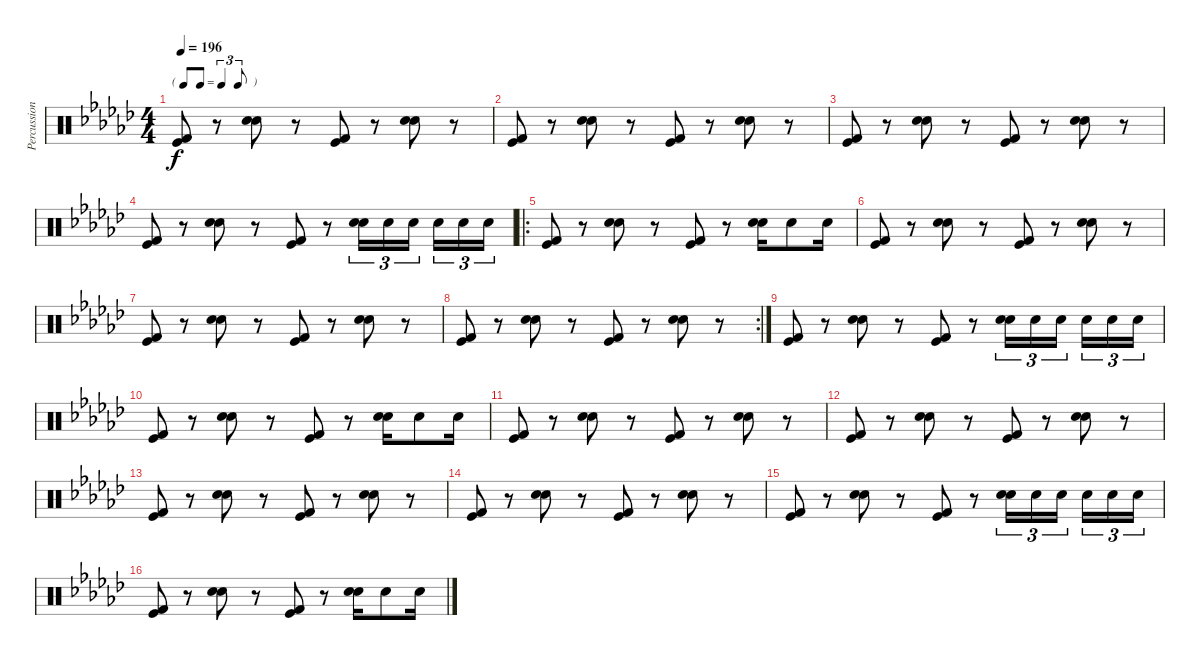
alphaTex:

\track ("Percussions" "Percussion") {instrument percussion}
\staff {score}
\articulation defaults
\ts (4 4)
\tf triplet8th
\tempo 196
\clef neutral
\ks gb
("Kick (hit) 2" "Kick (hit)").8{dy f} r.8 ("Snare (hit) 2" "Electric Snare (hit)").8 r.8 ("Kick (hit) 2" "Kick (hit)").8 r.8 ("Snare (hit) 2" "Electric Snare (hit)").8 r.8 |
("Kick (hit) 2" "Kick (hit)").8 r.8 ("Snare (hit) 2" "Electric Snare (hit)").8 r.8 ("Kick (hit) 2" "Kick (hit)").8 r.8 ("Snare (hit) 2" "Electric Snare (hit)").8 r.8 |
("Kick (hit) 2" "Kick (hit)").8 r.8 ("Snare (hit) 2" "Electric Snare (hit)").8 r.8 ("Kick (hit) 2" "Kick (hit)").8 r.8 ("Snare (hit) 2" "Electric Snare (hit)").8 r.8 |
("Kick (hit) 2" "Kick (hit)").8 r.8 ("Snare (hit) 2" "Electric Snare (hit)").8 r.8 ("Kick (hit) 2" "Kick (hit)").8 r.8 ("Hand Clap (hit)" "Electric Snare (hit)").16{tu (3 2)} "Hand Clap (hit)".16{tu (3 2)} "Hand Clap (hit)".16{tu (3 2) beam splitsecondary} "Hand Clap (hit)".16{tu (3 2)} "Hand Clap (hit)".16{tu (3 2)} "Hand Clap (hit)".16{tu (3 2)} |
\ro
("Kick (hit) 2" "Kick (hit)").8 r.8 ("Snare (hit) 2" "Electric Snare (hit)").8 r.8 ("Kick (hit) 2" "Kick (hit)").8 r.8 ("Snare (hit) 2" "Electric Snare (hit)").16 "Hand Clap (hit)".8 "Hand Clap (hit)".16 |
("Kick (hit) 2" "Kick (hit)").8 r.8 ("Snare (hit) 2" "Electric Snare (hit)").8 r.8 ("Kick (hit) 2" "Kick (hit)").8 r.8 ("Snare (hit) 2" "Electric Snare (hit)").8 r.8 |
("Kick (hit) 2" "Kick (hit)").8 r.8 ("Snare (hit) 2" "Electric Snare (hit)").8 r.8 ("Kick (hit) 2" "Kick (hit)").8 r.8 ("Snare (hit) 2" "Electric Snare (hit)").8 r.8 |
\rc 2
("Kick (hit) 2" "Kick (hit)").8 r.8 ("Snare (hit) 2" "Electric Snare (hit)").8 r.8 ("Kick (hit) 2" "Kick (hit)").8 r.8 ("Snare (hit) 2" "Electric Snare (hit)").8 r.8 |
("Kick (hit) 2" "Kick (hit)").8 r.8 ("Snare (hit) 2" "Electric Snare (hit)").8 r.8 ("Kick (hit) 2" "Kick (hit)").8 r.8 ("Hand Clap (hit)" "Electric Snare (hit)").16{tu (3 2)} "Hand Clap (hit)".16{tu (3 2)} "Hand Clap (hit)".16{tu (3 2) beam splitsecondary} "Hand Clap (hit)".16{tu (3 2)} "Hand Clap (hit)".16{tu (3 2)} "Hand Clap (hit)".16{tu (3 2)} |
("Kick (hit) 2" "Kick (hit)").8 r.8 ("Snare (hit) 2" "Electric Snare (hit)").8 r.8 ("Kick (hit) 2" "Kick (hit)").8 r.8 ("Snare (hit) 2" "Electric Snare (hit)").16 "Hand Clap (hit)".8 "Hand Clap (hit)".16 |
("Kick (hit) 2" "Kick (hit)").8 r.8 ("Snare (hit) 2" "Electric Snare (hit)").8 r.8 ("Kick (hit) 2" "Kick (hit)").8 r.8 ("Snare (hit) 2" "Electric Snare (hit)").8 r.8 |
("Kick (hit) 2" "Kick (hit)").8 r.8 ("Snare (hit) 2" "Electric Snare (hit)").8 r.8 ("Kick (hit) 2" "Kick (hit)").8 r.8 ("Snare (hit) 2" "Electric Snare (hit)").8 r.8 |
("Kick (hit) 2" "Kick (hit)").8 r.8 ("Snare (hit) 2" "Electric Snare (hit)").8 r.8 ("Kick (hit) 2" "Kick (hit)").8 r.8 ("Snare (hit) 2" "Electric Snare (hit)").8 r.8 |
("Kick (hit) 2" "Kick (hit)").8 r.8 ("Snare (hit) 2" "Electric Snare (hit)").8 r.8 ("Kick (hit) 2" "Kick (hit)").8 r.8 ("Snare (hit) 2" "Electric Snare (hit)").8 r.8 |
("Kick (hit) 2" "Kick (hit)").8 r.8 ("Snare (hit) 2" "Electric Snare (hit)").8 r.8 ("Kick (hit) 2" "Kick (hit)").8 r.8 ("Hand Clap (hit)" "Electric Snare (hit)").16{tu (3 2)} "Hand Clap (hit)".16{tu (3 2)} "Hand Clap (hit)".16{tu (3 2) beam splitsecondary} "Hand Clap (hit)".16{tu (3 2)} "Hand Clap (hit)".16{tu (3 2)} "Hand Clap (hit)".16{tu (3 2)} |
("Kick (hit) 2" "Kick (hit)").8 r.8 ("Snare (hit) 2" "Electric Snare (hit)").8 r.8 ("Kick (hit) 2" "Kick (hit)").8 r.8 ("Snare (hit) 2" "Electric Snare (hit)").16 "Hand Clap (hit)".8 "Hand Clap (hit)".16
